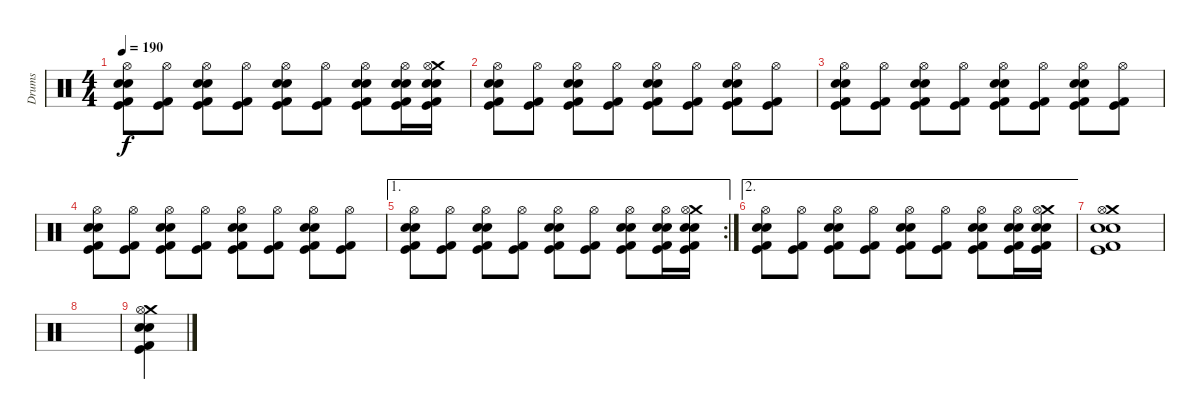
\track ("Drums" "Drums") {instrument percussion}
\staff {score}
\articulation defaults
\ts (4 4)
\tempo 190
\clef neutral
\ks c
("Hi-Hat (open)" "Kick (hit) 2" "Snare (hit) 2" "Electric Snare (hit)" "Kick (hit)").8{dy f} ("Hi-Hat (open)" "Kick (hit) 2" "Kick (hit)").8 ("Snare (hit) 2" "Hi-Hat (open)" "Electric Snare (hit)" "Kick (hit)" "Kick (hit) 2").8 ("Hi-Hat (open)" "Kick (hit) 2" "Kick (hit)").8 ("Snare (hit) 2" "Hi-Hat (open)" "Electric Snare (hit)" "Kick (hit)" "Kick (hit) 2").8 ("Hi-Hat (open)" "Kick (hit) 2" "Kick (hit)").8 ("Snare (hit) 2" "Hi-Hat (open)" "Electric Snare (hit)" "Kick (hit)" "Kick (hit) 2").8 ("Electric Snare (hit)" "Hi-Hat (open)" "Kick (hit) 2" "Kick (hit)" "Snare (hit) 2").16 ("Crash medium (hit)" "Electric Snare (hit)" "Hi-Hat (open)" "Kick (hit) 2" "Kick (hit)" "Snare (hit) 2").16 |
("Hi-Hat (open)" "Kick (hit) 2" "Snare (hit) 2" "Electric Snare (hit)" "Kick (hit)").8 ("Hi-Hat (open)" "Kick (hit) 2" "Kick (hit)").8 ("Snare (hit) 2" "Hi-Hat (open)" "Electric Snare (hit)" "Kick (hit)" "Kick (hit) 2").8 ("Hi-Hat (open)" "Kick (hit) 2" "Kick (hit)").8 ("Snare (hit) 2" "Hi-Hat (open)" "Electric Snare (hit)" "Kick (hit)" "Kick (hit) 2").8 ("Hi-Hat (open)" "Kick (hit) 2" "Kick (hit)").8 ("Snare (hit) 2" "Hi-Hat (open)" "Electric Snare (hit)" "Kick (hit)" "Kick (hit) 2").8 ("Hi-Hat (open)" "Kick (hit) 2" "Kick (hit)").8 |
("Hi-Hat (open)" "Kick (hit) 2" "Snare (hit) 2" "Electric Snare (hit)" "Kick (hit)").8 ("Hi-Hat (open)" "Kick (hit) 2" "Kick (hit)").8 ("Snare (hit) 2" "Hi-Hat (open)" "Electric Snare (hit)" "Kick (hit)" "Kick (hit) 2").8 ("Hi-Hat (open)" "Kick (hit) 2" "Kick (hit)").8 ("Snare (hit) 2" "Hi-Hat (open)" "Electric Snare (hit)" "Kick (hit)" "Kick (hit) 2").8 ("Hi-Hat (open)" "Kick (hit) 2" "Kick (hit)").8 ("Snare (hit) 2" "Hi-Hat (open)" "Electric Snare (hit)" "Kick (hit)" "Kick (hit) 2").8 ("Hi-Hat (open)" "Kick (hit) 2" "Kick (hit)").8 |
("Hi-Hat (open)" "Kick (hit) 2" "Snare (hit) 2" "Electric Snare (hit)" "Kick (hit)").8 ("Hi-Hat (open)" "Kick (hit) 2" "Kick (hit)").8 ("Snare (hit) 2" "Hi-Hat (open)" "Electric Snare (hit)" "Kick (hit)" "Kick (hit) 2").8 ("Hi-Hat (open)" "Kick (hit) 2" "Kick (hit)").8 ("Snare (hit) 2" "Hi-Hat (open)" "Electric Snare (hit)" "Kick (hit)" "Kick (hit) 2").8 ("Hi-Hat (open)" "Kick (hit) 2" "Kick (hit)").8 ("Snare (hit) 2" "Hi-Hat (open)" "Electric Snare (hit)" "Kick (hit)" "Kick (hit) 2").8 ("Hi-Hat (open)" "Kick (hit) 2" "Kick (hit)").8 |
\ae 1
\rc 2
("Hi-Hat (open)" "Kick (hit) 2" "Snare (hit) 2" "Electric Snare (hit)" "Kick (hit)").8 ("Hi-Hat (open)" "Kick (hit) 2" "Kick (hit)").8 ("Snare (hit) 2" "Hi-Hat (open)" "Electric Snare (hit)" "Kick (hit)" "Kick (hit) 2").8 ("Hi-Hat (open)" "Kick (hit) 2" "Kick (hit)").8 ("Snare (hit) 2" "Hi-Hat (open)" "Electric Snare (hit)" "Kick (hit)" "Kick (hit) 2").8 ("Hi-Hat (open)" "Kick (hit) 2" "Kick (hit)").8 ("Snare (hit) 2" "Hi-Hat (open)" "Electric Snare (hit)" "Kick (hit)" "Kick (hit) 2").8 ("Electric Snare (hit)" "Hi-Hat (open)" "Kick (hit) 2" "Kick (hit)" "Snare (hit) 2").16 ("Crash medium (hit)" "Electric Snare (hit)" "Hi-Hat (open)" "Kick (hit) 2" "Kick (hit)" "Snare (hit) 2").16 |
\ae 2
("Hi-Hat (open)" "Kick (hit) 2" "Snare (hit) 2" "Electric Snare (hit)" "Kick (hit)").8 ("Hi-Hat (open)" "Kick (hit) 2" "Kick (hit)").8 ("Snare (hit) 2" "Hi-Hat (open)" "Electric Snare (hit)" "Kick (hit)" "Kick (hit) 2").8 ("Hi-Hat (open)" "Kick (hit) 2" "Kick (hit)").8 ("Snare (hit) 2" "Hi-Hat (open)" "Electric Snare (hit)" "Kick (hit)" "Kick (hit) 2").8 ("Hi-Hat (open)" "Kick (hit) 2" "Kick (hit)").8 ("Snare (hit) 2" "Hi-Hat (open)" "Electric Snare (hit)" "Kick (hit)" "Kick (hit) 2").8 ("Electric Snare (hit)" "Hi-Hat (open)" "Kick (hit) 2" "Kick (hit)" "Snare (hit) 2").16 ("Crash medium (hit)" "Electric Snare (hit)" "Hi-Hat (open)" "Kick (hit) 2" "Kick (hit)" "Snare (hit) 2").16 |
("Crash medium (hit)" "Electric Snare (hit)" "Hi-Hat (open)" "Kick (hit) 2" "Kick (hit)" "Snare (hit) 2").1 |
|
("Crash medium (hit)" "Electric Snare (hit)" "Hi-Hat (open)" "Kick (hit) 2" "Kick (hit)" "Snare (hit) 2").4
